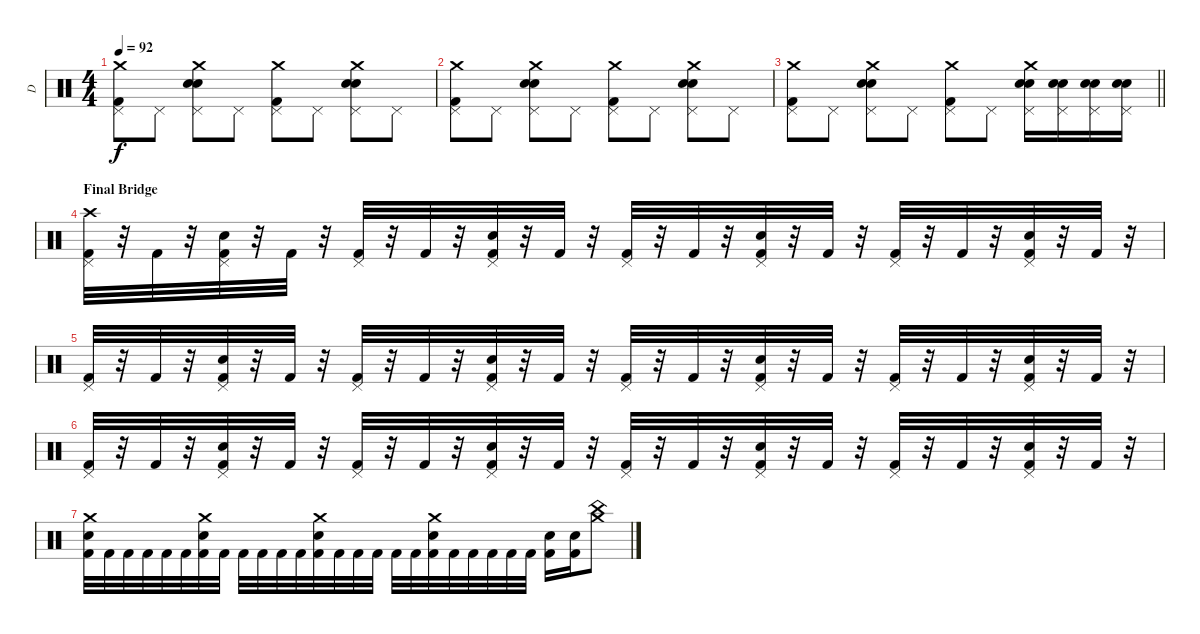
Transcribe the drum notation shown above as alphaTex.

\track ("D" "D") {instrument percussion}
\staff {score}
\articulation defaults
\ts (4 4)
\tempo 92
\clef neutral
\ks c
("Crash medium (hit)" "Kick (hit) 2" "Pedal Hi-Hat (hit)").8{dy f} "Pedal Hi-Hat (hit)".8 ("Crash medium (hit)" "Electric Snare (hit)" "Electric Snare (hit)" "Pedal Hi-Hat (hit)").8 "Pedal Hi-Hat (hit)".8 ("Crash medium (hit)" "Kick (hit) 2" "Pedal Hi-Hat (hit)").8 "Pedal Hi-Hat (hit)".8 ("Crash medium (hit)" "Electric Snare (hit)" "Electric Snare (hit)" "Pedal Hi-Hat (hit)").8 "Pedal Hi-Hat (hit)".8 |
("Crash medium (hit)" "Kick (hit) 2" "Pedal Hi-Hat (hit)").8 "Pedal Hi-Hat (hit)".8 ("Crash medium (hit)" "Electric Snare (hit)" "Electric Snare (hit)" "Pedal Hi-Hat (hit)").8 "Pedal Hi-Hat (hit)".8 ("Crash medium (hit)" "Kick (hit) 2" "Pedal Hi-Hat (hit)").8 "Pedal Hi-Hat (hit)".8 ("Crash medium (hit)" "Electric Snare (hit)" "Electric Snare (hit)" "Pedal Hi-Hat (hit)").8 "Pedal Hi-Hat (hit)".8 |
\barLineRight lightlight
("Crash medium (hit)" "Kick (hit) 2" "Pedal Hi-Hat (hit)").8 "Pedal Hi-Hat (hit)".8 ("Crash medium (hit)" "Electric Snare (hit)" "Electric Snare (hit)" "Pedal Hi-Hat (hit)").8 "Pedal Hi-Hat (hit)".8 ("Crash medium (hit)" "Kick (hit) 2" "Pedal Hi-Hat (hit)").8 "Pedal Hi-Hat (hit)".8 ("Crash medium (hit)" "Electric Snare (hit)" "Electric Snare (hit)" "Pedal Hi-Hat (hit)").16 ("Electric Snare (hit)" "Electric Snare (hit)" "Pedal Hi-Hat (hit)").16 ("Electric Snare (hit)" "Electric Snare (hit)" "Pedal Hi-Hat (hit)").16 ("Electric Snare (hit)" "Electric Snare (hit)" "Pedal Hi-Hat (hit)").16 |
\section ("" "Final Bridge")
("Crash high (hit)" "Kick (hit) 2" "Pedal Hi-Hat (hit)").32 r.32 "Kick (hit) 2".32 r.32 ("Electric Snare (hit)" "Kick (hit) 2" "Pedal Hi-Hat (hit)").32 r.32 "Kick (hit) 2".32 r.32 ("Kick (hit) 2" "Pedal Hi-Hat (hit)").32 r.32 "Kick (hit) 2".32 r.32 ("Electric Snare (hit)" "Kick (hit) 2" "Pedal Hi-Hat (hit)").32 r.32 "Kick (hit) 2".32 r.32 ("Kick (hit) 2" "Pedal Hi-Hat (hit)").32 r.32 "Kick (hit) 2".32 r.32 ("Electric Snare (hit)" "Kick (hit) 2" "Pedal Hi-Hat (hit)").32 r.32 "Kick (hit) 2".32 r.32 ("Kick (hit) 2" "Pedal Hi-Hat (hit)").32 r.32 "Kick (hit) 2".32 r.32 ("Electric Snare (hit)" "Kick (hit) 2" "Pedal Hi-Hat (hit)").32 r.32 "Kick (hit) 2".32 r.32 |
("Kick (hit) 2" "Pedal Hi-Hat (hit)").32 r.32 "Kick (hit) 2".32 r.32 ("Electric Snare (hit)" "Kick (hit) 2" "Pedal Hi-Hat (hit)").32 r.32 "Kick (hit) 2".32 r.32 ("Kick (hit) 2" "Pedal Hi-Hat (hit)").32 r.32 "Kick (hit) 2".32 r.32 ("Electric Snare (hit)" "Kick (hit) 2" "Pedal Hi-Hat (hit)").32 r.32 "Kick (hit) 2".32 r.32 ("Kick (hit) 2" "Pedal Hi-Hat (hit)").32 r.32 "Kick (hit) 2".32 r.32 ("Electric Snare (hit)" "Kick (hit) 2" "Pedal Hi-Hat (hit)").32 r.32 "Kick (hit) 2".32 r.32 ("Kick (hit) 2" "Pedal Hi-Hat (hit)").32 r.32 "Kick (hit) 2".32 r.32 ("Electric Snare (hit)" "Kick (hit) 2" "Pedal Hi-Hat (hit)").32 r.32 "Kick (hit) 2".32 r.32 |
("Kick (hit) 2" "Pedal Hi-Hat (hit)").32 r.32 "Kick (hit) 2".32 r.32 ("Electric Snare (hit)" "Kick (hit) 2" "Pedal Hi-Hat (hit)").32 r.32 "Kick (hit) 2".32 r.32 ("Kick (hit) 2" "Pedal Hi-Hat (hit)").32 r.32 "Kick (hit) 2".32 r.32 ("Electric Snare (hit)" "Kick (hit) 2" "Pedal Hi-Hat (hit)").32 r.32 "Kick (hit) 2".32 r.32 ("Kick (hit) 2" "Pedal Hi-Hat (hit)").32 r.32 "Kick (hit) 2".32 r.32 ("Electric Snare (hit)" "Kick (hit) 2" "Pedal Hi-Hat (hit)").32 r.32 "Kick (hit) 2".32 r.32 ("Kick (hit) 2" "Pedal Hi-Hat (hit)").32 r.32 "Kick (hit) 2".32 r.32 ("Electric Snare (hit)" "Kick (hit) 2" "Pedal Hi-Hat (hit)").32 r.32 "Kick (hit) 2".32 r.32 |
("Crash medium (hit)" "Electric Snare (hit)" "Kick (hit) 2").32 "Kick (hit) 2".32 "Kick (hit) 2".32 "Kick (hit) 2".32 "Kick (hit) 2".32 "Kick (hit) 2".32 ("Crash medium (hit)" "Electric Snare (hit)" "Kick (hit) 2").32 "Kick (hit) 2".32 "Kick (hit) 2".32 "Kick (hit) 2".32 "Kick (hit) 2".32 "Kick (hit) 2".32 ("Crash medium (hit)" "Electric Snare (hit)" "Kick (hit) 2").32 "Kick (hit) 2".32 "Kick (hit) 2".32 "Kick (hit) 2".32 "Kick (hit) 2".32 "Kick (hit) 2".32 ("Crash medium (hit)" "Electric Snare (hit)" "Kick (hit) 2").32 "Kick (hit) 2".32 "Kick (hit) 2".32 "Kick (hit) 2".32 "Kick (hit) 2".32 "Kick (hit) 2".32 ("Electric Snare (hit)" "Kick (hit) 2").16 ("Electric Snare (hit)" "Kick (hit) 2").16 ("Crash medium (hit)" "China (hit)").8
